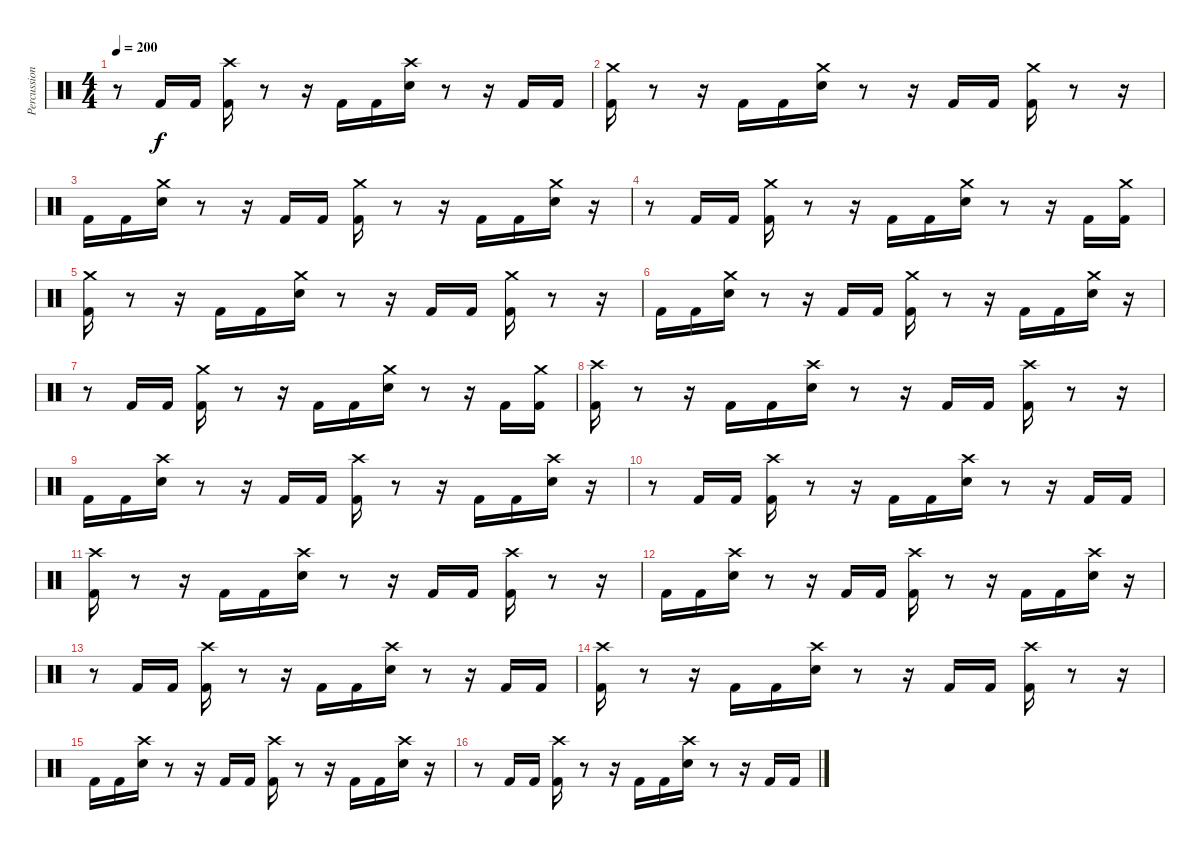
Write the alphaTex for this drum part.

\track ("Percussion" "Percussion") {instrument percussion}
\staff {score}
\articulation defaults
\ts (4 4)
\tempo 200
\clef neutral
\ks c
r.8{dy f} "Kick (hit) 2".16 "Kick (hit) 2".16 ("Crash high (hit)" "Kick (hit) 2").16 r.8 r.16 "Kick (hit) 2".16 "Kick (hit) 2".16 ("Crash high (hit)" "Electric Snare (hit)").16 r.8 r.16 "Kick (hit) 2".16 "Kick (hit) 2".16 |
("Crash medium (hit)" "Kick (hit) 2").16 r.8 r.16 "Kick (hit) 2".16 "Kick (hit) 2".16 ("Crash medium (hit)" "Electric Snare (hit)").16 r.8 r.16 "Kick (hit) 2".16 "Kick (hit) 2".16 ("Crash medium (hit)" "Kick (hit) 2").16 r.8 r.16 |
"Kick (hit) 2".16 "Kick (hit) 2".16 ("Crash medium (hit)" "Electric Snare (hit)").16 r.8 r.16 "Kick (hit) 2".16 "Kick (hit) 2".16 ("Crash medium (hit)" "Kick (hit) 2").16 r.8 r.16 "Kick (hit) 2".16 "Kick (hit) 2".16 ("Crash medium (hit)" "Electric Snare (hit)").16 r.16 |
r.8 "Kick (hit) 2".16 "Kick (hit) 2".16 ("Crash medium (hit)" "Kick (hit) 2").16 r.8 r.16 "Kick (hit) 2".16 "Kick (hit) 2".16 ("Crash medium (hit)" "Electric Snare (hit)").16 r.8 r.16 "Kick (hit) 2".16 ("Crash medium (hit)" "Kick (hit) 2").16 |
("Crash medium (hit)" "Kick (hit) 2").16 r.8 r.16 "Kick (hit) 2".16 "Kick (hit) 2".16 ("Crash medium (hit)" "Electric Snare (hit)").16 r.8 r.16 "Kick (hit) 2".16 "Kick (hit) 2".16 ("Crash medium (hit)" "Kick (hit) 2").16 r.8 r.16 |
"Kick (hit) 2".16 "Kick (hit) 2".16 ("Crash medium (hit)" "Electric Snare (hit)").16 r.8 r.16 "Kick (hit) 2".16 "Kick (hit) 2".16 ("Crash medium (hit)" "Kick (hit) 2").16 r.8 r.16 "Kick (hit) 2".16 "Kick (hit) 2".16 ("Crash medium (hit)" "Electric Snare (hit)").16 r.16 |
r.8 "Kick (hit) 2".16 "Kick (hit) 2".16 ("Crash medium (hit)" "Kick (hit) 2").16 r.8 r.16 "Kick (hit) 2".16 "Kick (hit) 2".16 ("Crash medium (hit)" "Electric Snare (hit)").16 r.8 r.16 "Kick (hit) 2".16 ("Crash medium (hit)" "Kick (hit) 2").16 |
("Crash high (hit)" "Kick (hit) 2").16 r.8 r.16 "Kick (hit) 2".16 "Kick (hit) 2".16 ("Crash high (hit)" "Electric Snare (hit)").16 r.8 r.16 "Kick (hit) 2".16 "Kick (hit) 2".16 ("Crash high (hit)" "Kick (hit) 2").16 r.8 r.16 |
"Kick (hit) 2".16 "Kick (hit) 2".16 ("Crash high (hit)" "Electric Snare (hit)").16 r.8 r.16 "Kick (hit) 2".16 "Kick (hit) 2".16 ("Crash high (hit)" "Kick (hit) 2").16 r.8 r.16 "Kick (hit) 2".16 "Kick (hit) 2".16 ("Crash high (hit)" "Electric Snare (hit)").16 r.16 |
r.8 "Kick (hit) 2".16 "Kick (hit) 2".16 ("Crash high (hit)" "Kick (hit) 2").16 r.8 r.16 "Kick (hit) 2".16 "Kick (hit) 2".16 ("Crash high (hit)" "Electric Snare (hit)").16 r.8 r.16 "Kick (hit) 2".16 "Kick (hit) 2".16 |
("Crash high (hit)" "Kick (hit) 2").16 r.8 r.16 "Kick (hit) 2".16 "Kick (hit) 2".16 ("Crash high (hit)" "Electric Snare (hit)").16 r.8 r.16 "Kick (hit) 2".16 "Kick (hit) 2".16 ("Crash high (hit)" "Kick (hit) 2").16 r.8 r.16 |
"Kick (hit) 2".16 "Kick (hit) 2".16 ("Crash high (hit)" "Electric Snare (hit)").16 r.8 r.16 "Kick (hit) 2".16 "Kick (hit) 2".16 ("Crash high (hit)" "Kick (hit) 2").16 r.8 r.16 "Kick (hit) 2".16 "Kick (hit) 2".16 ("Crash high (hit)" "Electric Snare (hit)").16 r.16 |
r.8 "Kick (hit) 2".16 "Kick (hit) 2".16 ("Crash high (hit)" "Kick (hit) 2").16 r.8 r.16 "Kick (hit) 2".16 "Kick (hit) 2".16 ("Crash high (hit)" "Electric Snare (hit)").16 r.8 r.16 "Kick (hit) 2".16 "Kick (hit) 2".16 |
("Crash high (hit)" "Kick (hit) 2").16 r.8 r.16 "Kick (hit) 2".16 "Kick (hit) 2".16 ("Crash high (hit)" "Electric Snare (hit)").16 r.8 r.16 "Kick (hit) 2".16 "Kick (hit) 2".16 ("Crash high (hit)" "Kick (hit) 2").16 r.8 r.16 |
"Kick (hit) 2".16 "Kick (hit) 2".16 ("Crash high (hit)" "Electric Snare (hit)").16 r.8 r.16 "Kick (hit) 2".16 "Kick (hit) 2".16 ("Crash high (hit)" "Kick (hit) 2").16 r.8 r.16 "Kick (hit) 2".16 "Kick (hit) 2".16 ("Crash high (hit)" "Electric Snare (hit)").16 r.16 |
r.8 "Kick (hit) 2".16 "Kick (hit) 2".16 ("Crash high (hit)" "Kick (hit) 2").16 r.8 r.16 "Kick (hit) 2".16 "Kick (hit) 2".16 ("Crash high (hit)" "Electric Snare (hit)").16 r.8 r.16 "Kick (hit) 2".16 "Kick (hit) 2".16
